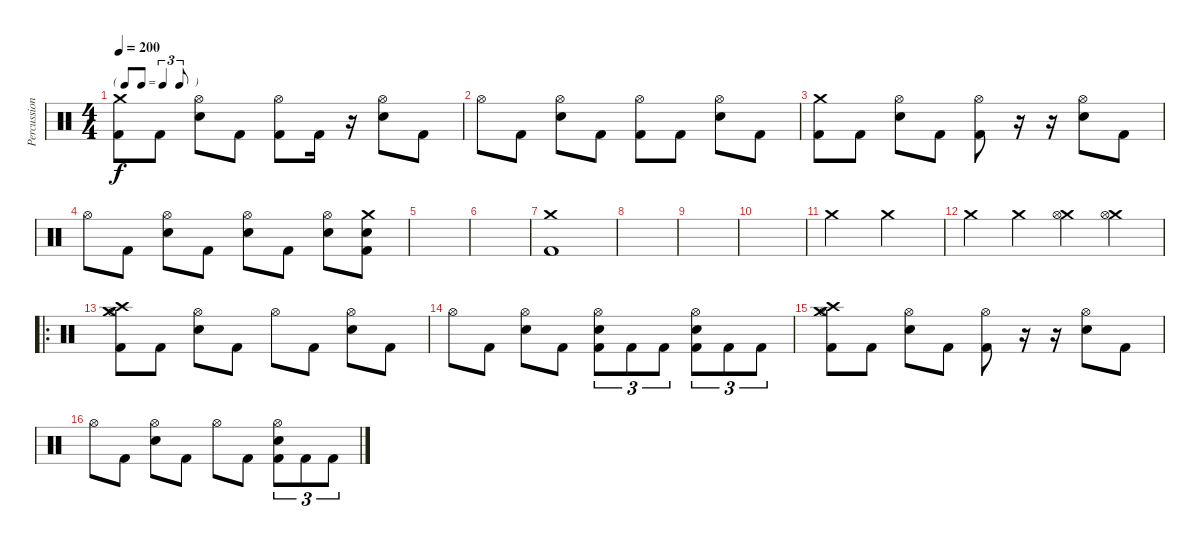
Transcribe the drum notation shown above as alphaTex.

\track ("Percussion" "Percussion") {instrument percussion}
\staff {score}
\articulation defaults
\ts (4 4)
\tf triplet8th
\tempo 200
\clef neutral
\ks c
("Kick (hit) 2" "Crash medium (hit)").8{dy f} "Kick (hit) 2".8 ("Electric Snare (hit)" "Hi-Hat (open)").8 "Kick (hit) 2".8 ("Kick (hit) 2" "Hi-Hat (open)").8 "Kick (hit) 2".16 r.16 ("Electric Snare (hit)" "Hi-Hat (open)").8 "Kick (hit) 2".8 |
"Hi-Hat (open)".8 "Kick (hit) 2".8 ("Electric Snare (hit)" "Hi-Hat (open)").8 "Kick (hit) 2".8 ("Kick (hit) 2" "Hi-Hat (open)").8 "Kick (hit) 2".8 ("Electric Snare (hit)" "Hi-Hat (open)").8 "Kick (hit) 2".8 |
("Kick (hit) 2" "Crash medium (hit)").8 "Kick (hit) 2".8 ("Electric Snare (hit)" "Hi-Hat (open)").8 "Kick (hit) 2".8 ("Kick (hit) 2" "Hi-Hat (open)").8 r.16 r.16 ("Electric Snare (hit)" "Hi-Hat (open)").8 "Kick (hit) 2".8 |
"Hi-Hat (open)".8 "Kick (hit) 2".8 ("Electric Snare (hit)" "Hi-Hat (open)").8 "Kick (hit) 2".8 ("Electric Snare (hit)" "Hi-Hat (open)").8 "Kick (hit) 2".8 ("Electric Snare (hit)" "Hi-Hat (open)").8 ("Kick (hit) 2" "Electric Snare (hit)" "Crash medium (hit)").8 |
|
|
("Crash medium (hit)" "Kick (hit) 2").1 |
|
|
|
"Crash medium (hit)".2{volume 16} "Crash medium (hit)".2 |
"Crash medium (hit)".4 "Crash medium (hit)".4 ("Crash medium (hit)" "Hi-Hat (open)").4 ("Crash medium (hit)" "Hi-Hat (open)").4 |
\ro
("Kick (hit) 2" "Hi-Hat (open)" "Crash high (hit)" "Crash medium (hit)").8 "Kick (hit) 2".8 ("Electric Snare (hit)" "Hi-Hat (open)").8 "Kick (hit) 2".8 "Hi-Hat (open)".8 "Kick (hit) 2".8 ("Electric Snare (hit)" "Hi-Hat (open)").8 "Kick (hit) 2".8 |
"Hi-Hat (open)".8 "Kick (hit) 2".8 ("Electric Snare (hit)" "Hi-Hat (open)").8 "Kick (hit) 2".8 ("Kick (hit) 2" "Electric Snare (hit)" "Hi-Hat (open)").8{tu (3 2)} "Kick (hit) 2".8{tu (3 2)} "Kick (hit) 2".8{tu (3 2)} ("Kick (hit) 2" "Electric Snare (hit)" "Hi-Hat (open)").8{tu (3 2)} "Kick (hit) 2".8{tu (3 2)} "Kick (hit) 2".8{tu (3 2)} |
("Kick (hit) 2" "Crash high (hit)" "Hi-Hat (open)" "Crash medium (hit)").8 "Kick (hit) 2".8 ("Electric Snare (hit)" "Hi-Hat (open)").8 "Kick (hit) 2".8 ("Kick (hit) 2" "Hi-Hat (open)").8 r.16 r.16 ("Electric Snare (hit)" "Hi-Hat (open)").8 "Kick (hit) 2".8 |
"Hi-Hat (open)".8 "Kick (hit) 2".8 ("Electric Snare (hit)" "Hi-Hat (open)").8 "Kick (hit) 2".8 "Hi-Hat (open)".8 "Kick (hit) 2".8 ("Kick (hit) 2" "Electric Snare (hit)" "Hi-Hat (open)").8{tu (3 2)} "Kick (hit) 2".8{tu (3 2)} "Kick (hit) 2".8{tu (3 2)}
